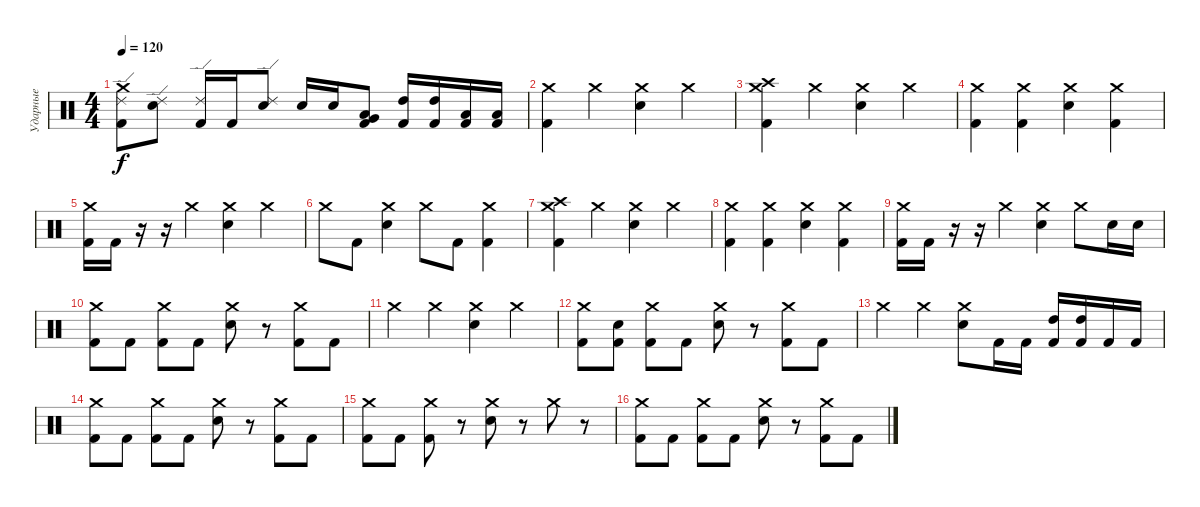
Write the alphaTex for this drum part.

\track ("Ударные" "Ударные") {instrument percussion}
\staff {score}
\articulation defaults
\ts (4 4)
\tempo 120
\clef neutral
\ks c
("Crash medium (hit)" "Ride (edge) 2" "Kick (hit) 2").8{dy f} ("Ride (edge) 2" "Electric Snare (hit)").8 ("Ride (edge) 2" "Kick (hit) 2").16 "Kick (hit) 2".16 ("Ride (edge) 2" "Electric Snare (hit)").8 "Electric Snare (hit)".16 "Electric Snare (hit)".16 ("Low Floor Tom (hit)" "Kick (hit) 2" "Very Low Tom (hit)").8 ("High Tom (hit)" "Kick (hit) 2").16 ("High Tom (hit)" "Kick (hit) 2").16 ("Low Tom (hit)" "Kick (hit) 2").16 ("Low Tom (hit)" "Kick (hit) 2").16 |
("Crash medium (hit)" "Kick (hit) 2").4 "Crash medium (hit)".4 ("Crash medium (hit)" "Electric Snare (hit)").4 "Crash medium (hit)".4 |
("Crash high (hit)" "Crash medium (hit)" "Kick (hit) 2").4 "Crash medium (hit)".4 ("Crash medium (hit)" "Electric Snare (hit)").4 "Crash medium (hit)".4 |
("Crash medium (hit)" "Kick (hit) 2").4 ("Crash medium (hit)" "Kick (hit) 2").4 ("Crash medium (hit)" "Electric Snare (hit)").4 ("Crash medium (hit)" "Kick (hit) 2").4 |
("Crash medium (hit)" "Kick (hit) 2").16 "Kick (hit) 2".16 r.16 r.16 "Crash medium (hit)".4 ("Crash medium (hit)" "Electric Snare (hit)").4 "Crash medium (hit)".4 |
"Crash medium (hit)".8 "Kick (hit) 2".8 ("Crash medium (hit)" "Electric Snare (hit)").4 "Crash medium (hit)".8 "Kick (hit) 2".8 ("Crash medium (hit)" "Kick (hit) 2").4 |
("Crash high (hit)" "Crash medium (hit)" "Kick (hit) 2").4 "Crash medium (hit)".4 ("Crash medium (hit)" "Electric Snare (hit)").4 "Crash medium (hit)".4 |
("Crash medium (hit)" "Kick (hit) 2").4 ("Crash medium (hit)" "Kick (hit) 2").4 ("Crash medium (hit)" "Electric Snare (hit)").4 ("Crash medium (hit)" "Kick (hit) 2").4 |
("Crash medium (hit)" "Kick (hit) 2").16 "Kick (hit) 2".16 r.16 r.16 "Crash medium (hit)".4 ("Crash medium (hit)" "Electric Snare (hit)").4 "Crash medium (hit)".8 "Electric Snare (hit)".16 "Electric Snare (hit)".16 |
("Crash medium (hit)" "Kick (hit) 2").8 "Kick (hit) 2".8 ("Crash medium (hit)" "Kick (hit) 2").8 "Kick (hit) 2".8 ("Crash medium (hit)" "Electric Snare (hit)").8 r.8 ("Crash medium (hit)" "Kick (hit) 2").8 "Kick (hit) 2".8 |
"Crash medium (hit)".4 "Crash medium (hit)".4 ("Crash medium (hit)" "Electric Snare (hit)").4 "Crash medium (hit)".4 |
("Crash medium (hit)" "Kick (hit) 2").8 ("Snare (hit)" "Kick (hit) 2").8 ("Crash medium (hit)" "Kick (hit) 2").8 "Kick (hit) 2".8 ("Crash medium (hit)" "Electric Snare (hit)").8 r.8 ("Crash medium (hit)" "Kick (hit) 2").8 "Kick (hit) 2".8 |
"Crash medium (hit)".4 "Crash medium (hit)".4 ("Crash medium (hit)" "Electric Snare (hit)").8 "Kick (hit) 2".16 "Kick (hit) 2".16 ("High Tom (hit)" "Kick (hit) 2").16 ("High Tom (hit)" "Kick (hit) 2").16 "Kick (hit) 2".16 "Kick (hit) 2".16 |
("Crash medium (hit)" "Kick (hit) 2").8 "Kick (hit) 2".8 ("Crash medium (hit)" "Kick (hit) 2").8 "Kick (hit) 2".8 ("Crash medium (hit)" "Electric Snare (hit)").8 r.8 ("Crash medium (hit)" "Kick (hit) 2").8 "Kick (hit) 2".8 |
("Crash medium (hit)" "Kick (hit) 2").8 "Kick (hit) 2".8 ("Crash medium (hit)" "Kick (hit) 2").8 r.8 ("Crash medium (hit)" "Electric Snare (hit)").8 r.8 "Crash medium (hit)".8 r.8 |
("Crash medium (hit)" "Kick (hit) 2").8 "Kick (hit) 2".8 ("Crash medium (hit)" "Kick (hit) 2").8 "Kick (hit) 2".8 ("Crash medium (hit)" "Electric Snare (hit)").8 r.8 ("Crash medium (hit)" "Kick (hit) 2").8 "Kick (hit) 2".8
